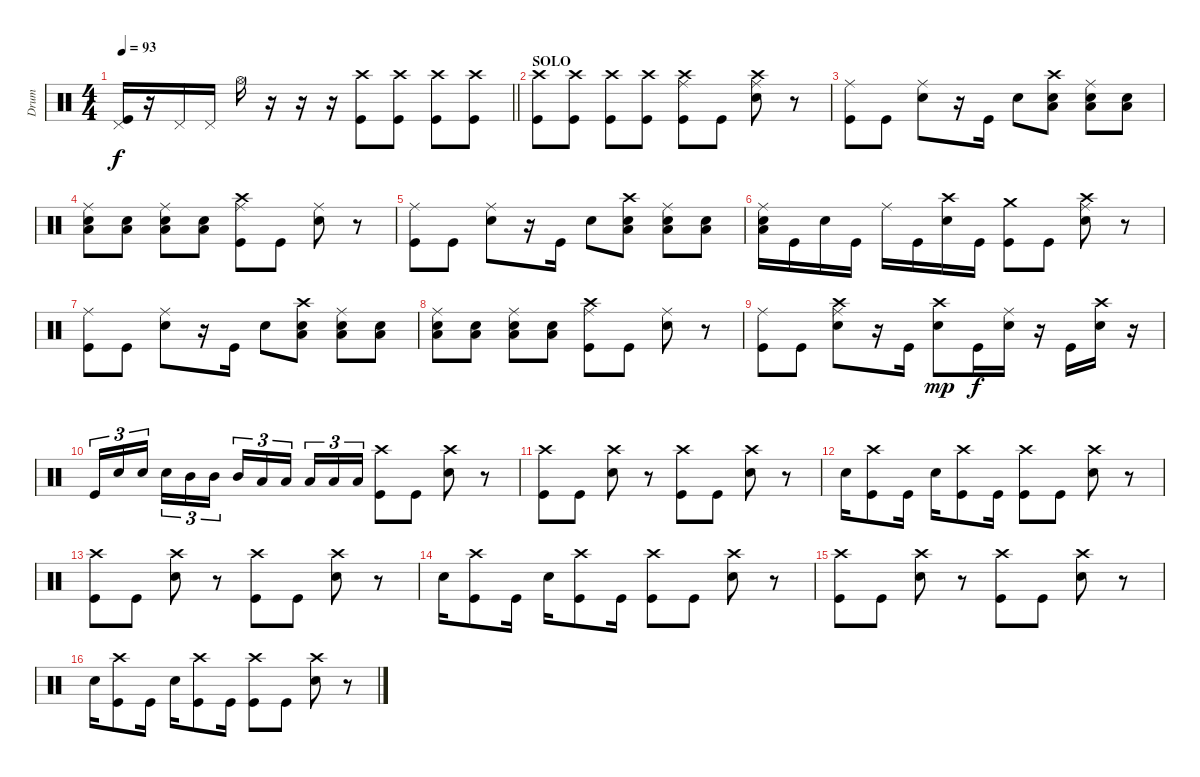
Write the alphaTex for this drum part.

\track ("Drum" "Drum") {instrument percussion}
\staff {score}
\articulation defaults
\ts (4 4)
\tempo 93
\clef neutral
\barLineRight lightlight
\ks c
("Pedal Hi-Hat (hit)" "Kick (hit)").16{dy f} r.16 "Pedal Hi-Hat (hit)".16 "Pedal Hi-Hat (hit)".16 "Hi-Hat (open)".16 r.16 r.16 r.16 ("Crash high (hit)" "Kick (hit)").8 ("Crash high (hit)" "Kick (hit)").8 ("Crash high (hit)" "Kick (hit)").8 ("Crash high (hit)" "Kick (hit)").8 |
\section ("" "SOLO")
("Crash high (hit)" "Kick (hit)").8 ("Crash high (hit)" "Kick (hit)").8 ("Crash high (hit)" "Kick (hit)").8 ("Crash high (hit)" "Kick (hit)").8 ("Crash high (hit)" "Ride (middle)" "Kick (hit)").8 "Kick (hit)".8 ("Crash high (hit)" "Ride (middle)" "Snare (hit) 2").8 r.8 |
("Ride (middle)" "Kick (hit)").8 "Kick (hit)".8 ("Ride (middle)" "Snare (hit) 2").8 r.16 "Kick (hit)".16 "Snare (hit) 2".8 ("Crash high (hit)" "Low Floor Tom (hit)" "Snare (hit) 2").8 ("Ride (middle)" "Low Floor Tom (hit)" "Snare (hit) 2").8 ("Low Floor Tom (hit)" "Snare (hit) 2").8 |
("Ride (middle)" "Low Floor Tom (hit)" "Snare (hit) 2").8 ("Low Floor Tom (hit)" "Snare (hit) 2").8 ("Ride (middle)" "Low Floor Tom (hit)" "Snare (hit) 2").8 ("Low Floor Tom (hit)" "Snare (hit) 2").8 ("Crash high (hit)" "Ride (middle)" "Kick (hit)").8 "Kick (hit)".8 ("Ride (middle)" "Snare (hit) 2").8 r.8 |
("Ride (middle)" "Kick (hit)").8 "Kick (hit)".8 ("Ride (middle)" "Snare (hit) 2").8 r.16 "Kick (hit)".16 "Snare (hit) 2".8 ("Crash high (hit)" "Low Floor Tom (hit)" "Snare (hit) 2").8 ("Ride (middle)" "Low Floor Tom (hit)" "Snare (hit) 2").8 ("Low Floor Tom (hit)" "Snare (hit) 2").8 |
("Ride (middle)" "Low Floor Tom (hit)" "Snare (hit) 2").16 "Kick (hit)".16 "Snare (hit) 2".16 "Kick (hit)".16 "Ride (middle)".16 "Kick (hit)".16 ("Crash high (hit)" "Snare (hit) 2").16 "Kick (hit)".16 ("Crash medium (hit)" "Kick (hit)").8 "Kick (hit)".8 ("Crash high (hit)" "Ride (middle)" "Snare (hit) 2").8 r.8 |
("Ride (middle)" "Kick (hit)").8 "Kick (hit)".8 ("Ride (middle)" "Snare (hit) 2").8 r.16 "Kick (hit)".16 "Snare (hit) 2".8 ("Crash high (hit)" "Low Floor Tom (hit)" "Snare (hit) 2").8 ("Ride (middle)" "Low Floor Tom (hit)" "Snare (hit) 2").8 ("Low Floor Tom (hit)" "Snare (hit) 2").8 |
("Ride (middle)" "Low Floor Tom (hit)" "Snare (hit) 2").8 ("Low Floor Tom (hit)" "Snare (hit) 2").8 ("Ride (middle)" "Low Floor Tom (hit)" "Snare (hit) 2").8 ("Low Floor Tom (hit)" "Snare (hit) 2").8 ("Crash high (hit)" "Ride (middle)" "Kick (hit)").8 "Kick (hit)".8 ("Ride (middle)" "Snare (hit) 2").8 r.8 |
("Ride (middle)" "Kick (hit)").8 "Kick (hit)".8 ("Crash high (hit)" "Ride (middle)" "Snare (hit) 2").8 r.16 "Kick (hit)".16 ("Crash high (hit)" "Snare (hit) 2").8{dy mp} "Kick (hit)".16{dy f} ("Ride (middle)" "Snare (hit) 2").16 r.16 "Kick (hit)".16 ("Crash high (hit)" "Snare (hit) 2").16 r.16 |
"Kick (hit)".16{tu (3 2)} "Snare (hit) 2".16{tu (3 2)} "Snare (hit) 2".16{tu (3 2) beam splitsecondary} "Snare (hit) 2".16{tu (3 2)} "Mid Tom (hit)".16{tu (3 2)} "Mid Tom (hit)".16{tu (3 2)} "Mid Tom (hit)".16{tu (3 2)} "Low Floor Tom (hit)".16{tu (3 2)} "Low Floor Tom (hit)".16{tu (3 2) beam splitsecondary} "Low Floor Tom (hit)".16{tu (3 2)} "Low Floor Tom (hit)".16{tu (3 2)} "Low Floor Tom (hit)".16{tu (3 2)} ("Crash high (hit)" "Kick (hit)").8 "Kick (hit)".8 ("Crash high (hit)" "Snare (hit) 2").8 r.8 |
("Crash high (hit)" "Kick (hit)").8 "Kick (hit)".8 ("Crash high (hit)" "Snare (hit) 2").8 r.8 ("Crash high (hit)" "Kick (hit)").8 "Kick (hit)".8 ("Crash high (hit)" "Snare (hit) 2").8 r.8 |
"Snare (hit) 2".16 ("Crash high (hit)" "Kick (hit)").8 "Kick (hit)".16 "Snare (hit) 2".16 ("Crash high (hit)" "Kick (hit)").8 "Kick (hit)".16 ("Crash high (hit)" "Kick (hit)").8 "Kick (hit)".8 ("Crash high (hit)" "Snare (hit) 2").8 r.8 |
("Crash high (hit)" "Kick (hit)").8 "Kick (hit)".8 ("Crash high (hit)" "Snare (hit) 2").8 r.8 ("Crash high (hit)" "Kick (hit)").8 "Kick (hit)".8 ("Crash high (hit)" "Snare (hit) 2").8 r.8 |
"Snare (hit) 2".16 ("Crash high (hit)" "Kick (hit)").8 "Kick (hit)".16 "Snare (hit) 2".16 ("Crash high (hit)" "Kick (hit)").8 "Kick (hit)".16 ("Crash high (hit)" "Kick (hit)").8 "Kick (hit)".8 ("Crash high (hit)" "Snare (hit) 2").8 r.8 |
("Crash high (hit)" "Kick (hit)").8 "Kick (hit)".8 ("Crash high (hit)" "Snare (hit) 2").8 r.8 ("Crash high (hit)" "Kick (hit)").8 "Kick (hit)".8 ("Crash high (hit)" "Snare (hit) 2").8 r.8 |
"Snare (hit) 2".16 ("Crash high (hit)" "Kick (hit)").8 "Kick (hit)".16 "Snare (hit) 2".16 ("Crash high (hit)" "Kick (hit)").8 "Kick (hit)".16 ("Crash high (hit)" "Kick (hit)").8 "Kick (hit)".8 ("Crash high (hit)" "Snare (hit) 2").8 r.8
